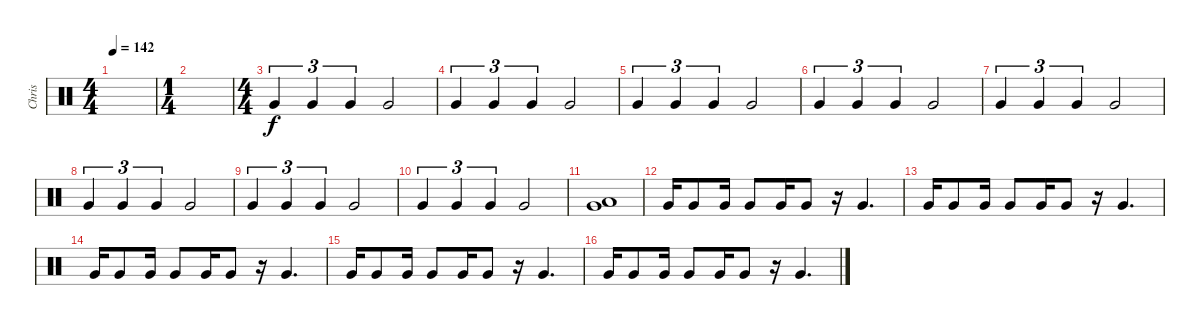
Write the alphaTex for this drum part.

\track ("Chris" "Chris") {instrument percussion}
\staff {score}
\articulation defaults
\ts (4 4)
\tempo 142
\clef neutral
\ks c
|
\ts (1 4)
|
\ts (4 4)
"Very Low Tom (hit)".4{tu (3 2)} "Very Low Tom (hit)".4{tu (3 2)} "Very Low Tom (hit)".4{tu (3 2)} "Very Low Tom (hit)".2 |
"Very Low Tom (hit)".4{tu (3 2)} "Very Low Tom (hit)".4{tu (3 2)} "Very Low Tom (hit)".4{tu (3 2)} "Very Low Tom (hit)".2 |
"Very Low Tom (hit)".4{tu (3 2)} "Very Low Tom (hit)".4{tu (3 2)} "Very Low Tom (hit)".4{tu (3 2)} "Very Low Tom (hit)".2 |
"Very Low Tom (hit)".4{tu (3 2)} "Very Low Tom (hit)".4{tu (3 2)} "Very Low Tom (hit)".4{tu (3 2)} "Very Low Tom (hit)".2 |
"Very Low Tom (hit)".4{tu (3 2)} "Very Low Tom (hit)".4{tu (3 2)} "Very Low Tom (hit)".4{tu (3 2)} "Very Low Tom (hit)".2 |
"Very Low Tom (hit)".4{tu (3 2)} "Very Low Tom (hit)".4{tu (3 2)} "Very Low Tom (hit)".4{tu (3 2)} "Very Low Tom (hit)".2 |
"Very Low Tom (hit)".4{tu (3 2)} "Very Low Tom (hit)".4{tu (3 2)} "Very Low Tom (hit)".4{tu (3 2)} "Very Low Tom (hit)".2 |
"Very Low Tom (hit)".4{tu (3 2)} "Very Low Tom (hit)".4{tu (3 2)} "Very Low Tom (hit)".4{tu (3 2)} "Very Low Tom (hit)".2 |
("Very Low Tom (hit)" "Low Floor Tom (hit)").1 |
"Very Low Tom (hit)".16 "Very Low Tom (hit)".8 "Very Low Tom (hit)".16 "Very Low Tom (hit)".8 "Very Low Tom (hit)".16 "Very Low Tom (hit)".8 r.16 "Very Low Tom (hit)".4{d} |
"Very Low Tom (hit)".16 "Very Low Tom (hit)".8 "Very Low Tom (hit)".16 "Very Low Tom (hit)".8 "Very Low Tom (hit)".16 "Very Low Tom (hit)".8 r.16 "Very Low Tom (hit)".4{d} |
"Very Low Tom (hit)".16 "Very Low Tom (hit)".8 "Very Low Tom (hit)".16 "Very Low Tom (hit)".8 "Very Low Tom (hit)".16 "Very Low Tom (hit)".8 r.16 "Very Low Tom (hit)".4{d} |
"Very Low Tom (hit)".16 "Very Low Tom (hit)".8 "Very Low Tom (hit)".16 "Very Low Tom (hit)".8 "Very Low Tom (hit)".16 "Very Low Tom (hit)".8 r.16 "Very Low Tom (hit)".4{d} |
"Very Low Tom (hit)".16 "Very Low Tom (hit)".8 "Very Low Tom (hit)".16 "Very Low Tom (hit)".8 "Very Low Tom (hit)".16 "Very Low Tom (hit)".8 r.16 "Very Low Tom (hit)".4{d}
